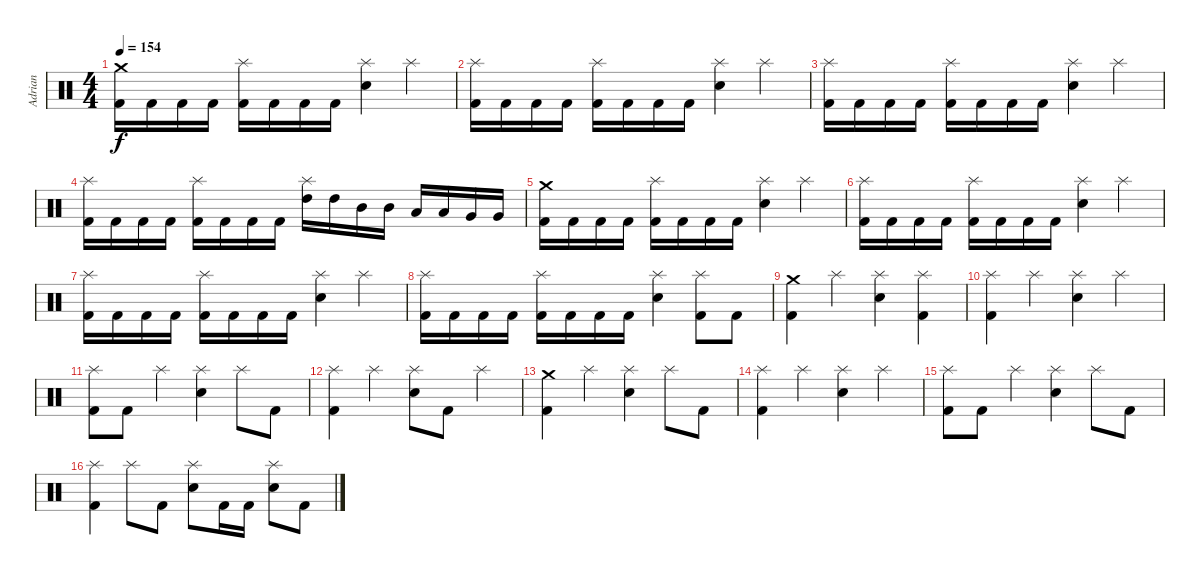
\track ("Adrian" "Adrian") {instrument percussion}
\staff {score}
\articulation defaults
\ts (4 4)
\tempo 154
\clef neutral
\ks c
("Crash medium (hit)" "Kick (hit) 2").16{dy f} "Kick (hit) 2".16 "Kick (hit) 2".16 "Kick (hit) 2".16 ("Splash (hit)" "Kick (hit) 2").16 "Kick (hit) 2".16 "Kick (hit) 2".16 "Kick (hit) 2".16 ("Splash (hit)" "Electric Snare (hit)").4 "Splash (hit)".4 |
("Splash (hit)" "Kick (hit) 2").16 "Kick (hit) 2".16 "Kick (hit) 2".16 "Kick (hit) 2".16 ("Splash (hit)" "Kick (hit) 2").16 "Kick (hit) 2".16 "Kick (hit) 2".16 "Kick (hit) 2".16 ("Splash (hit)" "Electric Snare (hit)").4 "Splash (hit)".4 |
("Splash (hit)" "Kick (hit) 2").16 "Kick (hit) 2".16 "Kick (hit) 2".16 "Kick (hit) 2".16 ("Splash (hit)" "Kick (hit) 2").16 "Kick (hit) 2".16 "Kick (hit) 2".16 "Kick (hit) 2".16 ("Splash (hit)" "Electric Snare (hit)").4 "Splash (hit)".4 |
("Splash (hit)" "Kick (hit) 2").16 "Kick (hit) 2".16 "Kick (hit) 2".16 "Kick (hit) 2".16 ("Splash (hit)" "Kick (hit) 2").16 "Kick (hit) 2".16 "Kick (hit) 2".16 "Kick (hit) 2".16 ("Splash (hit)" "High Tom (hit)").16 "High Tom (hit)".16 "Mid Tom (hit)".16 "Mid Tom (hit)".16 "Low Tom (hit)".16 "Low Tom (hit)".16 "Very Low Tom (hit)".16 "Very Low Tom (hit)".16 |
("Crash medium (hit)" "Kick (hit) 2").16 "Kick (hit) 2".16 "Kick (hit) 2".16 "Kick (hit) 2".16 ("Splash (hit)" "Kick (hit) 2").16 "Kick (hit) 2".16 "Kick (hit) 2".16 "Kick (hit) 2".16 ("Splash (hit)" "Electric Snare (hit)").4 "Splash (hit)".4 |
("Splash (hit)" "Kick (hit) 2").16 "Kick (hit) 2".16 "Kick (hit) 2".16 "Kick (hit) 2".16 ("Splash (hit)" "Kick (hit) 2").16 "Kick (hit) 2".16 "Kick (hit) 2".16 "Kick (hit) 2".16 ("Splash (hit)" "Electric Snare (hit)").4 "Splash (hit)".4 |
("Splash (hit)" "Kick (hit) 2").16 "Kick (hit) 2".16 "Kick (hit) 2".16 "Kick (hit) 2".16 ("Splash (hit)" "Kick (hit) 2").16 "Kick (hit) 2".16 "Kick (hit) 2".16 "Kick (hit) 2".16 ("Splash (hit)" "Electric Snare (hit)").4 "Splash (hit)".4 |
("Splash (hit)" "Kick (hit) 2").16 "Kick (hit) 2".16 "Kick (hit) 2".16 "Kick (hit) 2".16 ("Splash (hit)" "Kick (hit) 2").16 "Kick (hit) 2".16 "Kick (hit) 2".16 "Kick (hit) 2".16 ("Splash (hit)" "Electric Snare (hit)").4 ("Splash (hit)" "Kick (hit) 2").8 "Kick (hit) 2".8 |
("Crash medium (hit)" "Kick (hit) 2").4 "Splash (hit)".4 ("Splash (hit)" "Electric Snare (hit)").4 ("Splash (hit)" "Kick (hit) 2").4 |
("Splash (hit)" "Kick (hit) 2").4 "Splash (hit)".4 ("Splash (hit)" "Electric Snare (hit)").4 "Splash (hit)".4 |
("Splash (hit)" "Kick (hit) 2").8 "Kick (hit) 2".8 "Splash (hit)".4 ("Splash (hit)" "Electric Snare (hit)").4 "Splash (hit)".8 "Kick (hit) 2".8 |
("Splash (hit)" "Kick (hit) 2").4 "Splash (hit)".4 ("Splash (hit)" "Electric Snare (hit)").8 "Kick (hit) 2".8 "Splash (hit)".4 |
("Crash medium (hit)" "Kick (hit) 2").4 "Splash (hit)".4 ("Splash (hit)" "Electric Snare (hit)").4 "Splash (hit)".8 "Kick (hit) 2".8 |
("Splash (hit)" "Kick (hit) 2").4 "Splash (hit)".4 ("Splash (hit)" "Electric Snare (hit)").4 "Splash (hit)".4 |
("Splash (hit)" "Kick (hit) 2").8 "Kick (hit) 2".8 "Splash (hit)".4 ("Splash (hit)" "Electric Snare (hit)").4 "Splash (hit)".8 "Kick (hit) 2".8 |
("Splash (hit)" "Kick (hit) 2").4 "Splash (hit)".8 "Kick (hit) 2".8 ("Splash (hit)" "Electric Snare (hit)").8 "Kick (hit) 2".16 "Kick (hit) 2".16 ("Splash (hit)" "Electric Snare (hit)").8 "Kick (hit) 2".8
